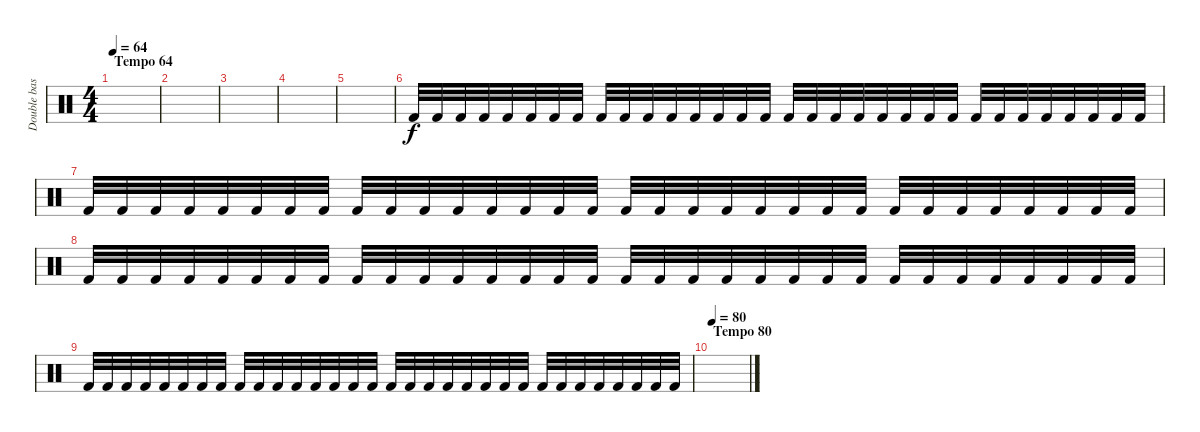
\track ("Double bass drum" "Double bas") {instrument percussion}
\staff {score}
\articulation defaults
\ts (4 4)
\section ("" "Tempo 64")
\tempo 64
\clef neutral
\ks c
|
|
|
|
|
"Kick (hit) 2".32 "Kick (hit) 2".32 "Kick (hit) 2".32 "Kick (hit) 2".32 "Kick (hit) 2".32 "Kick (hit) 2".32 "Kick (hit) 2".32 "Kick (hit) 2".32 "Kick (hit) 2".32 "Kick (hit) 2".32 "Kick (hit) 2".32 "Kick (hit) 2".32 "Kick (hit) 2".32 "Kick (hit) 2".32 "Kick (hit) 2".32 "Kick (hit) 2".32 "Kick (hit) 2".32 "Kick (hit) 2".32 "Kick (hit) 2".32 "Kick (hit) 2".32 "Kick (hit) 2".32 "Kick (hit) 2".32 "Kick (hit) 2".32 "Kick (hit) 2".32 "Kick (hit) 2".32 "Kick (hit) 2".32 "Kick (hit) 2".32 "Kick (hit) 2".32 "Kick (hit) 2".32 "Kick (hit) 2".32 "Kick (hit) 2".32 "Kick (hit) 2".32 |
"Kick (hit) 2".32 "Kick (hit) 2".32 "Kick (hit) 2".32 "Kick (hit) 2".32 "Kick (hit) 2".32 "Kick (hit) 2".32 "Kick (hit) 2".32 "Kick (hit) 2".32 "Kick (hit) 2".32 "Kick (hit) 2".32 "Kick (hit) 2".32 "Kick (hit) 2".32 "Kick (hit) 2".32 "Kick (hit) 2".32 "Kick (hit) 2".32 "Kick (hit) 2".32 "Kick (hit) 2".32 "Kick (hit) 2".32 "Kick (hit) 2".32 "Kick (hit) 2".32 "Kick (hit) 2".32 "Kick (hit) 2".32 "Kick (hit) 2".32 "Kick (hit) 2".32 "Kick (hit) 2".32 "Kick (hit) 2".32 "Kick (hit) 2".32 "Kick (hit) 2".32 "Kick (hit) 2".32 "Kick (hit) 2".32 "Kick (hit) 2".32 "Kick (hit) 2".32 |
"Kick (hit) 2".32 "Kick (hit) 2".32 "Kick (hit) 2".32 "Kick (hit) 2".32 "Kick (hit) 2".32 "Kick (hit) 2".32 "Kick (hit) 2".32 "Kick (hit) 2".32 "Kick (hit) 2".32 "Kick (hit) 2".32 "Kick (hit) 2".32 "Kick (hit) 2".32 "Kick (hit) 2".32 "Kick (hit) 2".32 "Kick (hit) 2".32 "Kick (hit) 2".32 "Kick (hit) 2".32 "Kick (hit) 2".32 "Kick (hit) 2".32 "Kick (hit) 2".32 "Kick (hit) 2".32 "Kick (hit) 2".32 "Kick (hit) 2".32 "Kick (hit) 2".32 "Kick (hit) 2".32 "Kick (hit) 2".32 "Kick (hit) 2".32 "Kick (hit) 2".32 "Kick (hit) 2".32 "Kick (hit) 2".32 "Kick (hit) 2".32 "Kick (hit) 2".32 |
"Kick (hit) 2".32 "Kick (hit) 2".32 "Kick (hit) 2".32 "Kick (hit) 2".32 "Kick (hit) 2".32 "Kick (hit) 2".32 "Kick (hit) 2".32 "Kick (hit) 2".32 "Kick (hit) 2".32 "Kick (hit) 2".32 "Kick (hit) 2".32 "Kick (hit) 2".32 "Kick (hit) 2".32 "Kick (hit) 2".32 "Kick (hit) 2".32 "Kick (hit) 2".32 "Kick (hit) 2".32 "Kick (hit) 2".32 "Kick (hit) 2".32 "Kick (hit) 2".32 "Kick (hit) 2".32 "Kick (hit) 2".32 "Kick (hit) 2".32 "Kick (hit) 2".32 "Kick (hit) 2".32 "Kick (hit) 2".32 "Kick (hit) 2".32 "Kick (hit) 2".32 "Kick (hit) 2".32 "Kick (hit) 2".32 "Kick (hit) 2".32 "Kick (hit) 2".32 |
\section ("" "Tempo 80")
\tempo 80
